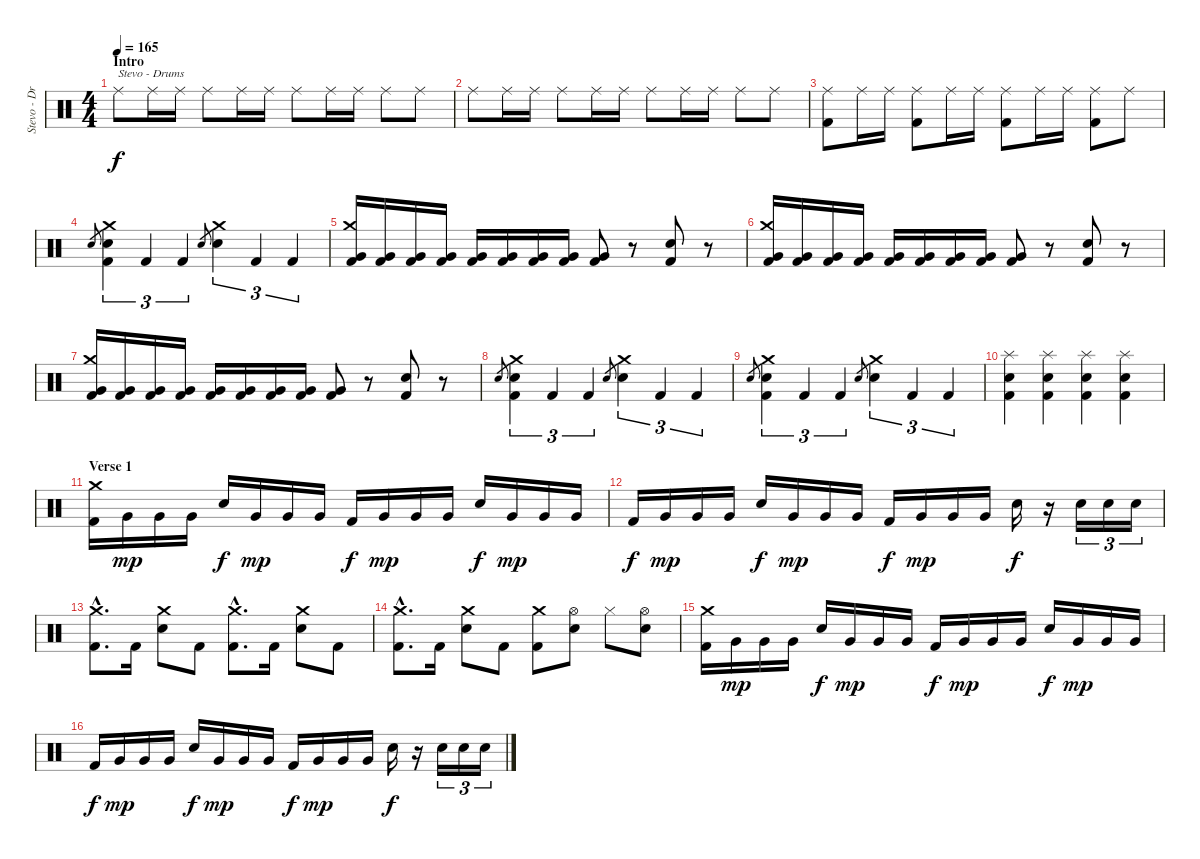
\track ("Stevo - Drums" "Stevo - Dr") {instrument percussion}
\staff {score}
\articulation defaults
\ts (4 4)
\section ("" "Intro")
\tempo 165
\clef neutral
\ks c "Ride (middle)".8{txt "Stevo - Drums" dy f} "Ride (middle)".16 "Ride (middle)".16 "Ride (middle)".8 "Ride (middle)".16 "Ride (middle)".16 "Ride (middle)".8 "Ride (middle)".16 "Ride (middle)".16 "Ride (middle)".8 "Ride (middle)".8
|
"Ride (middle)".8 "Ride (middle)".16 "Ride (middle)".16 "Ride (middle)".8 "Ride (middle)".16 "Ride (middle)".16 "Ride (middle)".8 "Ride (middle)".16 "Ride (middle)".16 "Ride (middle)".8 "Ride (middle)".8 |
("Ride (middle)" "Kick (hit) 2").8 "Ride (middle)".16 "Ride (middle)".16 ("Ride (middle)" "Kick (hit) 2").8 "Ride (middle)".16 "Ride (middle)".16 ("Ride (middle)" "Kick (hit) 2").8 "Ride (middle)".16 "Ride (middle)".16 ("Ride (middle)" "Kick (hit) 2").8 "Ride (middle)".8 |
"Electric Snare (hit)".8{gr} ("Crash medium (hit)" "Electric Snare (hit)" "Kick (hit) 2").4{tu (3 2)} "Kick (hit) 2".4{tu (3 2)} "Kick (hit) 2".4{tu (3 2)} "Electric Snare (hit)".8{gr} ("Crash medium (hit)" "Electric Snare (hit)").4{tu (3 2)} "Kick (hit) 2".4{tu (3 2)} "Kick (hit) 2".4{tu (3 2)} |
("Crash medium (hit)" "Very Low Tom (hit)" "Kick (hit) 2").16 ("Very Low Tom (hit)" "Kick (hit) 2").16 ("Very Low Tom (hit)" "Kick (hit) 2").16 ("Very Low Tom (hit)" "Kick (hit) 2").16 ("Very Low Tom (hit)" "Kick (hit) 2").16 ("Very Low Tom (hit)" "Kick (hit) 2").16 ("Very Low Tom (hit)" "Kick (hit) 2").16 ("Very Low Tom (hit)" "Kick (hit) 2").16 ("Very Low Tom (hit)" "Kick (hit) 2").8 r.8 ("Electric Snare (hit)" "Kick (hit) 2").8 r.8 |
("Crash medium (hit)" "Very Low Tom (hit)" "Kick (hit) 2").16 ("Very Low Tom (hit)" "Kick (hit) 2").16 ("Very Low Tom (hit)" "Kick (hit) 2").16 ("Very Low Tom (hit)" "Kick (hit) 2").16 ("Very Low Tom (hit)" "Kick (hit) 2").16 ("Very Low Tom (hit)" "Kick (hit) 2").16 ("Very Low Tom (hit)" "Kick (hit) 2").16 ("Very Low Tom (hit)" "Kick (hit) 2").16 ("Very Low Tom (hit)" "Kick (hit) 2").8 r.8 ("Electric Snare (hit)" "Kick (hit) 2").8 r.8 |
("Crash medium (hit)" "Very Low Tom (hit)" "Kick (hit) 2").16 ("Very Low Tom (hit)" "Kick (hit) 2").16 ("Very Low Tom (hit)" "Kick (hit) 2").16 ("Very Low Tom (hit)" "Kick (hit) 2").16 ("Very Low Tom (hit)" "Kick (hit) 2").16 ("Very Low Tom (hit)" "Kick (hit) 2").16 ("Very Low Tom (hit)" "Kick (hit) 2").16 ("Very Low Tom (hit)" "Kick (hit) 2").16 ("Very Low Tom (hit)" "Kick (hit) 2").8 r.8 ("Electric Snare (hit)" "Kick (hit) 2").8 r.8 |
"Electric Snare (hit)".8{gr} ("Crash medium (hit)" "Electric Snare (hit)" "Kick (hit) 2").4{tu (3 2)} "Kick (hit) 2".4{tu (3 2)} "Kick (hit) 2".4{tu (3 2)} "Electric Snare (hit)".8{gr} ("Crash medium (hit)" "Electric Snare (hit)").4{tu (3 2)} "Kick (hit) 2".4{tu (3 2)} "Kick (hit) 2".4{tu (3 2)} |
"Electric Snare (hit)".8{gr} ("Crash medium (hit)" "Electric Snare (hit)" "Kick (hit) 2").4{tu (3 2)} "Kick (hit) 2".4{tu (3 2)} "Kick (hit) 2".4{tu (3 2)} "Electric Snare (hit)".8{gr} ("Crash medium (hit)" "Electric Snare (hit)").4{tu (3 2)} "Kick (hit) 2".4{tu (3 2)} "Kick (hit) 2".4{tu (3 2)} |
("Splash (hit)" "Electric Snare (hit)" "Kick (hit) 2").4 ("Splash (hit)" "Electric Snare (hit)" "Kick (hit) 2").4 ("Splash (hit)" "Electric Snare (hit)" "Kick (hit) 2").4 ("Splash (hit)" "Electric Snare (hit)" "Kick (hit) 2").4 |
\section ("" "Verse 1")
("Crash medium (hit)" "Kick (hit) 2").16 "Very Low Tom (hit)".16{dy mp} "Very Low Tom (hit)".16 "Very Low Tom (hit)".16 "Electric Snare (hit)".16{dy f} "Very Low Tom (hit)".16{dy mp} "Very Low Tom (hit)".16 "Very Low Tom (hit)".16 "Kick (hit) 2".16{dy f} "Very Low Tom (hit)".16{dy mp} "Very Low Tom (hit)".16 "Very Low Tom (hit)".16 "Electric Snare (hit)".16{dy f} "Very Low Tom (hit)".16{dy mp} "Very Low Tom (hit)".16 "Very Low Tom (hit)".16 |
"Kick (hit) 2".16{dy f} "Very Low Tom (hit)".16{dy mp} "Very Low Tom (hit)".16 "Very Low Tom (hit)".16 "Electric Snare (hit)".16{dy f} "Very Low Tom (hit)".16{dy mp} "Very Low Tom (hit)".16 "Very Low Tom (hit)".16 "Kick (hit) 2".16{dy f} "Very Low Tom (hit)".16{dy mp} "Very Low Tom (hit)".16 "Very Low Tom (hit)".16 "Electric Snare (hit)".16{dy f} r.16 "Electric Snare (hit)".16{tu (3 2)} "Electric Snare (hit)".16{tu (3 2)} "Electric Snare (hit)".16{tu (3 2)} |
("Crash medium (hit)"{hac} "Kick (hit) 2"{hac}).8{d} "Kick (hit) 2".16 ("Crash medium (hit)" "Electric Snare (hit)").8 "Kick (hit) 2".8 ("Crash medium (hit)"{hac} "Kick (hit) 2"{hac}).8{d} "Kick (hit) 2".16 ("Crash medium (hit)" "Electric Snare (hit)").8 "Kick (hit) 2".8 |
("Crash medium (hit)"{hac} "Kick (hit) 2"{hac}).8{d} "Kick (hit) 2".16 ("Crash medium (hit)" "Electric Snare (hit)").8 "Kick (hit) 2".8 ("Crash medium (hit)" "Kick (hit) 2").8 ("Hi-Hat (open)" "Electric Snare (hit)").8 "Hi-Hat (closed)".8 ("Hi-Hat (open)" "Electric Snare (hit)").8 |
("Crash medium (hit)" "Kick (hit) 2").16 "Very Low Tom (hit)".16{dy mp} "Very Low Tom (hit)".16 "Very Low Tom (hit)".16 "Electric Snare (hit)".16{dy f} "Very Low Tom (hit)".16{dy mp} "Very Low Tom (hit)".16 "Very Low Tom (hit)".16 "Kick (hit) 2".16{dy f} "Very Low Tom (hit)".16{dy mp} "Very Low Tom (hit)".16 "Very Low Tom (hit)".16 "Electric Snare (hit)".16{dy f} "Very Low Tom (hit)".16{dy mp} "Very Low Tom (hit)".16 "Very Low Tom (hit)".16 |
"Kick (hit) 2".16{dy f} "Very Low Tom (hit)".16{dy mp} "Very Low Tom (hit)".16 "Very Low Tom (hit)".16 "Electric Snare (hit)".16{dy f} "Very Low Tom (hit)".16{dy mp} "Very Low Tom (hit)".16 "Very Low Tom (hit)".16 "Kick (hit) 2".16{dy f} "Very Low Tom (hit)".16{dy mp} "Very Low Tom (hit)".16 "Very Low Tom (hit)".16 "Electric Snare (hit)".16{dy f} r.16 "Electric Snare (hit)".16{tu (3 2)} "Electric Snare (hit)".16{tu (3 2)} "Electric Snare (hit)".16{tu (3 2)}
